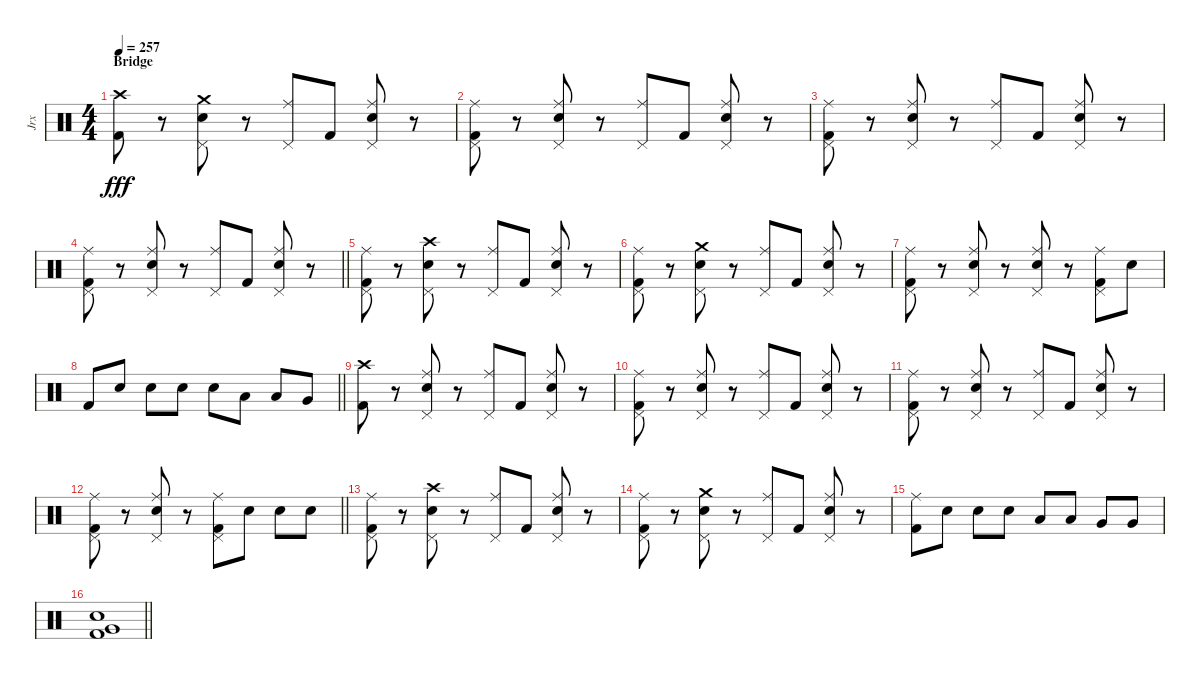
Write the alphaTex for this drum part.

\track ("Jrx" "Jrx") {instrument percussion}
\staff {score}
\articulation defaults
\ts (4 4)
\section ("" "Bridge")
\tempo 257
\clef neutral
\ks c
("Kick (hit) 2" "Crash high (hit)").8{dy fff} r.8 ("Pedal Hi-Hat (hit)" "Snare (hit) 2" "Crash medium (hit)").8 r.8 ("Pedal Hi-Hat (hit)" "Ride (middle)").8 "Kick (hit) 2".8 ("Pedal Hi-Hat (hit)" "Snare (hit) 2" "Ride (middle)").8 r.8 |
("Pedal Hi-Hat (hit)" "Kick (hit) 2" "Ride (middle)").8 r.8 ("Pedal Hi-Hat (hit)" "Snare (hit) 2" "Ride (middle)").8 r.8 ("Pedal Hi-Hat (hit)" "Ride (middle)").8 "Kick (hit) 2".8 ("Pedal Hi-Hat (hit)" "Snare (hit) 2" "Ride (middle)").8 r.8 |
("Pedal Hi-Hat (hit)" "Kick (hit) 2" "Ride (middle)").8 r.8 ("Pedal Hi-Hat (hit)" "Snare (hit) 2" "Ride (middle)").8 r.8 ("Pedal Hi-Hat (hit)" "Ride (middle)").8 "Kick (hit) 2".8 ("Pedal Hi-Hat (hit)" "Snare (hit) 2" "Ride (middle)").8 r.8 |
\barLineRight lightlight
("Pedal Hi-Hat (hit)" "Kick (hit) 2" "Ride (middle)").8 r.8 ("Pedal Hi-Hat (hit)" "Snare (hit) 2" "Ride (middle)").8 r.8 ("Pedal Hi-Hat (hit)" "Ride (middle)").8 "Kick (hit) 2".8 ("Pedal Hi-Hat (hit)" "Snare (hit) 2" "Ride (middle)").8 r.8 |
("Pedal Hi-Hat (hit)" "Kick (hit) 2" "Ride (middle)").8 r.8 ("Pedal Hi-Hat (hit)" "Snare (hit) 2" "Crash high (hit)").8 r.8 ("Pedal Hi-Hat (hit)" "Ride (middle)").8 "Kick (hit) 2".8 ("Pedal Hi-Hat (hit)" "Snare (hit) 2" "Ride (middle)").8 r.8 |
("Pedal Hi-Hat (hit)" "Kick (hit) 2" "Ride (middle)").8 r.8 ("Pedal Hi-Hat (hit)" "Snare (hit) 2" "Crash medium (hit)").8 r.8 ("Pedal Hi-Hat (hit)" "Ride (middle)").8 "Kick (hit) 2".8 ("Pedal Hi-Hat (hit)" "Snare (hit) 2" "Ride (middle)").8 r.8 |
("Pedal Hi-Hat (hit)" "Kick (hit) 2" "Ride (middle)").8 r.8 ("Pedal Hi-Hat (hit)" "Snare (hit) 2" "Ride (middle)").8 r.8 ("Pedal Hi-Hat (hit)" "Snare (hit) 2" "Ride (middle)").8 r.8 ("Pedal Hi-Hat (hit)" "Kick (hit) 2" "Ride (middle)").8 "Snare (hit) 2".8 |
\barLineRight lightlight "Kick (hit) 2".8 "Snare (hit) 2".8 "Snare (hit) 2".8 "Snare (hit) 2".8 "Snare (hit) 2".8 "Low Tom (hit)".8 "Low Tom (hit)".8 "Very Low Tom (hit)".8
|
("Kick (hit) 2" "Crash high (hit)").8 r.8 ("Pedal Hi-Hat (hit)" "Snare (hit) 2" "Ride (middle)").8 r.8 ("Pedal Hi-Hat (hit)" "Ride (middle)").8 "Kick (hit) 2".8 ("Pedal Hi-Hat (hit)" "Snare (hit) 2" "Ride (middle)").8 r.8 |
("Pedal Hi-Hat (hit)" "Kick (hit) 2" "Ride (middle)").8 r.8 ("Pedal Hi-Hat (hit)" "Snare (hit) 2" "Ride (middle)").8 r.8 ("Pedal Hi-Hat (hit)" "Ride (middle)").8 "Kick (hit) 2".8 ("Pedal Hi-Hat (hit)" "Snare (hit) 2" "Ride (middle)").8 r.8 |
("Pedal Hi-Hat (hit)" "Kick (hit) 2" "Ride (middle)").8 r.8 ("Pedal Hi-Hat (hit)" "Snare (hit) 2" "Ride (middle)").8 r.8 ("Pedal Hi-Hat (hit)" "Ride (middle)").8 "Kick (hit) 2".8 ("Pedal Hi-Hat (hit)" "Snare (hit) 2" "Ride (middle)").8 r.8 |
\barLineRight lightlight
("Pedal Hi-Hat (hit)" "Kick (hit) 2" "Ride (middle)").8 r.8 ("Pedal Hi-Hat (hit)" "Snare (hit) 2" "Ride (middle)").8 r.8 ("Pedal Hi-Hat (hit)" "Kick (hit) 2" "Ride (middle)").8 "Snare (hit) 2".8 "Snare (hit) 2".8 "Snare (hit) 2".8 |
("Pedal Hi-Hat (hit)" "Kick (hit) 2" "Ride (middle)").8 r.8 ("Pedal Hi-Hat (hit)" "Snare (hit) 2" "Crash high (hit)").8 r.8 ("Pedal Hi-Hat (hit)" "Ride (middle)").8 "Kick (hit) 2".8 ("Pedal Hi-Hat (hit)" "Snare (hit) 2" "Ride (middle)").8 r.8 |
("Pedal Hi-Hat (hit)" "Kick (hit) 2" "Ride (middle)").8 r.8 ("Pedal Hi-Hat (hit)" "Snare (hit) 2" "Crash medium (hit)").8 r.8 ("Pedal Hi-Hat (hit)" "Ride (middle)").8 "Kick (hit) 2".8 ("Pedal Hi-Hat (hit)" "Snare (hit) 2" "Ride (middle)").8 r.8 |
("Kick (hit) 2" "Ride (middle)").8 "Snare (hit) 2".8 "Snare (hit) 2".8 "Snare (hit) 2".8 "Low Tom (hit)".8 "Low Tom (hit)".8 "Very Low Tom (hit)".8 "Very Low Tom (hit)".8 |
\barLineRight lightlight
("Snare (hit) 2" "Kick (hit) 2" "Very Low Tom (hit)").1
